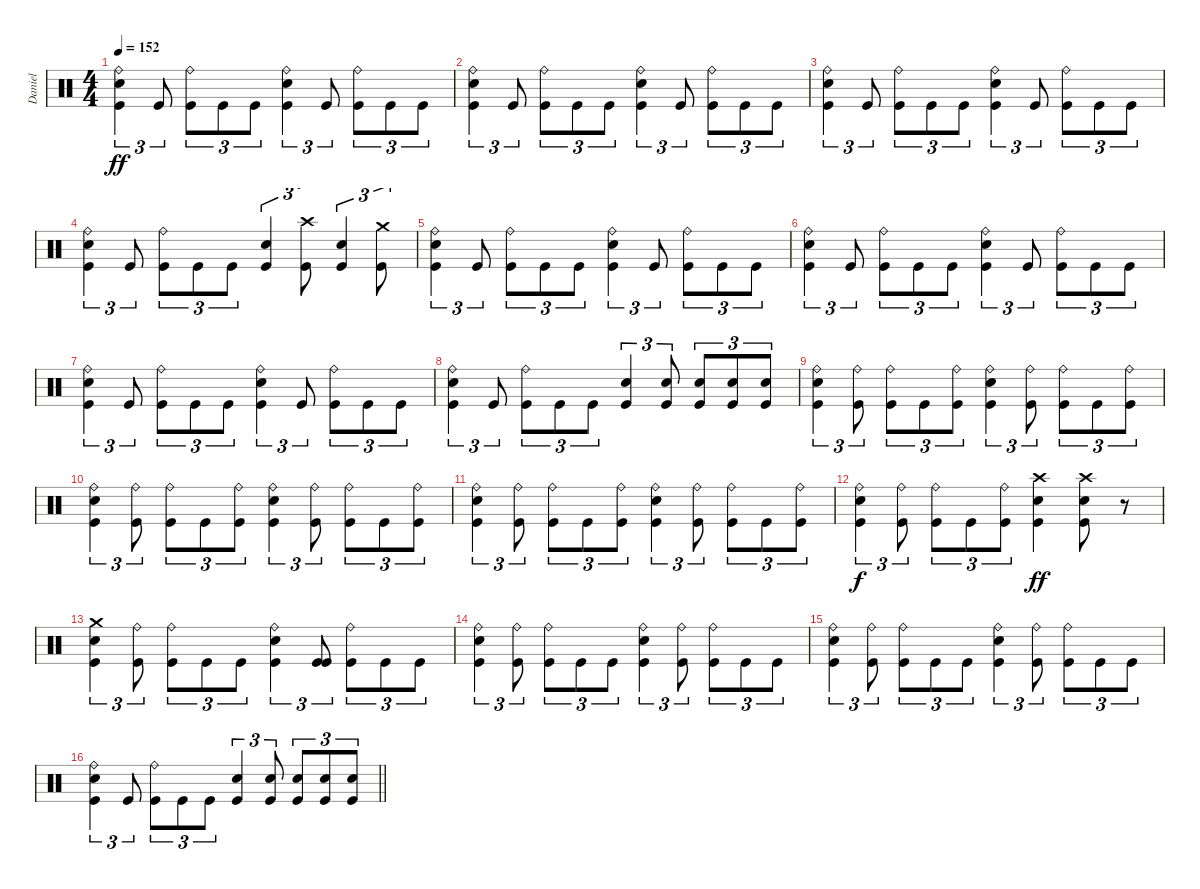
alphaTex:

\track ("Daniel" "Daniel") {instrument percussion}
\staff {score}
\articulation defaults
\ts (4 4)
\tempo 152
\clef neutral
\ks c
("Kick (hit)" "Snare (hit) 2" "Ride (bell)").4{tu (3 2) dy ff} "Kick (hit)".8{tu (3 2)} ("Kick (hit)" "Ride (bell)").8{tu (3 2)} "Kick (hit)".8{tu (3 2)} "Kick (hit)".8{tu (3 2)} ("Kick (hit)" "Snare (hit) 2" "Ride (bell)").4{tu (3 2)} "Kick (hit)".8{tu (3 2)} ("Kick (hit)" "Ride (bell)").8{tu (3 2)} "Kick (hit)".8{tu (3 2)} "Kick (hit)".8{tu (3 2)} |
("Kick (hit)" "Snare (hit) 2" "Ride (bell)").4{tu (3 2)} "Kick (hit)".8{tu (3 2)} ("Kick (hit)" "Ride (bell)").8{tu (3 2)} "Kick (hit)".8{tu (3 2)} "Kick (hit)".8{tu (3 2)} ("Kick (hit)" "Snare (hit) 2" "Ride (bell)").4{tu (3 2)} "Kick (hit)".8{tu (3 2)} ("Kick (hit)" "Ride (bell)").8{tu (3 2)} "Kick (hit)".8{tu (3 2)} "Kick (hit)".8{tu (3 2)} |
("Kick (hit)" "Snare (hit) 2" "Ride (bell)").4{tu (3 2)} "Kick (hit)".8{tu (3 2)} ("Kick (hit)" "Ride (bell)").8{tu (3 2)} "Kick (hit)".8{tu (3 2)} "Kick (hit)".8{tu (3 2)} ("Kick (hit)" "Snare (hit) 2" "Ride (bell)").4{tu (3 2)} "Kick (hit)".8{tu (3 2)} ("Kick (hit)" "Ride (bell)").8{tu (3 2)} "Kick (hit)".8{tu (3 2)} "Kick (hit)".8{tu (3 2)} |
("Kick (hit)" "Snare (hit) 2" "Ride (bell)").4{tu (3 2)} "Kick (hit)".8{tu (3 2)} ("Kick (hit)" "Ride (bell)").8{tu (3 2)} "Kick (hit)".8{tu (3 2)} "Kick (hit)".8{tu (3 2)} ("Kick (hit)" "Snare (hit) 2").4{tu (3 2)} ("Kick (hit)" "Crash high (hit)").8{tu (3 2)} ("Kick (hit)" "Snare (hit) 2").4{tu (3 2)} ("Kick (hit)" "Crash medium (hit)").8{tu (3 2)} |
("Kick (hit)" "Snare (hit) 2" "Ride (bell)").4{tu (3 2)} "Kick (hit)".8{tu (3 2)} ("Kick (hit)" "Ride (bell)").8{tu (3 2)} "Kick (hit)".8{tu (3 2)} "Kick (hit)".8{tu (3 2)} ("Kick (hit)" "Snare (hit) 2" "Ride (bell)").4{tu (3 2)} "Kick (hit)".8{tu (3 2)} ("Kick (hit)" "Ride (bell)").8{tu (3 2)} "Kick (hit)".8{tu (3 2)} "Kick (hit)".8{tu (3 2)} |
("Kick (hit)" "Snare (hit) 2" "Ride (bell)").4{tu (3 2)} "Kick (hit)".8{tu (3 2)} ("Kick (hit)" "Ride (bell)").8{tu (3 2)} "Kick (hit)".8{tu (3 2)} "Kick (hit)".8{tu (3 2)} ("Kick (hit)" "Snare (hit) 2" "Ride (bell)").4{tu (3 2)} "Kick (hit)".8{tu (3 2)} ("Kick (hit)" "Ride (bell)").8{tu (3 2)} "Kick (hit)".8{tu (3 2)} "Kick (hit)".8{tu (3 2)} |
("Kick (hit)" "Snare (hit) 2" "Ride (bell)").4{tu (3 2)} "Kick (hit)".8{tu (3 2)} ("Kick (hit)" "Ride (bell)").8{tu (3 2)} "Kick (hit)".8{tu (3 2)} "Kick (hit)".8{tu (3 2)} ("Kick (hit)" "Snare (hit) 2" "Ride (bell)").4{tu (3 2)} "Kick (hit)".8{tu (3 2)} ("Kick (hit)" "Ride (bell)").8{tu (3 2)} "Kick (hit)".8{tu (3 2)} "Kick (hit)".8{tu (3 2)} |
("Kick (hit)" "Snare (hit) 2" "Ride (bell)").4{tu (3 2)} "Kick (hit)".8{tu (3 2)} ("Kick (hit)" "Ride (bell)").8{tu (3 2)} "Kick (hit)".8{tu (3 2)} "Kick (hit)".8{tu (3 2)} ("Kick (hit)" "Snare (hit) 2").4{tu (3 2)} ("Kick (hit)" "Snare (hit) 2").8{tu (3 2)} ("Kick (hit)" "Snare (hit) 2").8{tu (3 2)} ("Kick (hit)" "Snare (hit) 2").8{tu (3 2)} ("Kick (hit)" "Snare (hit) 2").8{tu (3 2)} |
("Kick (hit)" "Snare (hit) 2" "Ride (bell)").4{tu (3 2)} ("Kick (hit)" "Ride (bell)").8{tu (3 2)} ("Kick (hit)" "Ride (bell)").8{tu (3 2)} "Kick (hit)".8{tu (3 2)} ("Kick (hit)" "Ride (bell)").8{tu (3 2)} ("Kick (hit)" "Snare (hit) 2" "Ride (bell)").4{tu (3 2)} ("Kick (hit)" "Ride (bell)").8{tu (3 2)} ("Kick (hit)" "Ride (bell)").8{tu (3 2)} "Kick (hit)".8{tu (3 2)} ("Kick (hit)" "Ride (bell)").8{tu (3 2)} |
("Kick (hit)" "Snare (hit) 2" "Ride (bell)").4{tu (3 2)} ("Kick (hit)" "Ride (bell)").8{tu (3 2)} ("Kick (hit)" "Ride (bell)").8{tu (3 2)} "Kick (hit)".8{tu (3 2)} ("Kick (hit)" "Ride (bell)").8{tu (3 2)} ("Kick (hit)" "Snare (hit) 2" "Ride (bell)").4{tu (3 2)} ("Kick (hit)" "Ride (bell)").8{tu (3 2)} ("Kick (hit)" "Ride (bell)").8{tu (3 2)} "Kick (hit)".8{tu (3 2)} ("Kick (hit)" "Ride (bell)").8{tu (3 2)} |
("Kick (hit)" "Snare (hit) 2" "Ride (bell)").4{tu (3 2)} ("Kick (hit)" "Ride (bell)").8{tu (3 2)} ("Kick (hit)" "Ride (bell)").8{tu (3 2)} "Kick (hit)".8{tu (3 2)} ("Kick (hit)" "Ride (bell)").8{tu (3 2)} ("Kick (hit)" "Snare (hit) 2" "Ride (bell)").4{tu (3 2)} ("Kick (hit)" "Ride (bell)").8{tu (3 2)} ("Kick (hit)" "Ride (bell)").8{tu (3 2)} "Kick (hit)".8{tu (3 2)} ("Kick (hit)" "Ride (bell)").8{tu (3 2)} |
("Kick (hit)" "Snare (hit) 2" "Ride (bell)").4{tu (3 2) dy f} ("Kick (hit)" "Ride (bell)").8{tu (3 2)} ("Kick (hit)" "Ride (bell)").8{tu (3 2)} "Kick (hit)".8{tu (3 2)} ("Kick (hit)" "Ride (bell)").8{tu (3 2)} ("Kick (hit)" "Snare (hit) 2" "Crash high (hit)").4{dy ff} ("Kick (hit)" "Snare (hit) 2" "Crash high (hit)").8 r.8 |
("Kick (hit)" "Snare (hit) 2" "Crash medium (hit)").4{tu (3 2)} ("Kick (hit)" "Ride (bell)").8{tu (3 2)} ("Kick (hit)" "Ride (bell)").8{tu (3 2)} "Kick (hit)".8{tu (3 2)} "Kick (hit)".8{tu (3 2)} ("Kick (hit)" "Snare (hit) 2" "Ride (bell)").4{tu (3 2)} ("Kick (hit)" "Kick (hit)").8{tu (3 2)} ("Kick (hit)" "Ride (bell)").8{tu (3 2)} "Kick (hit)".8{tu (3 2)} "Kick (hit)".8{tu (3 2)} |
("Kick (hit)" "Snare (hit) 2" "Ride (bell)").4{tu (3 2)} ("Kick (hit)" "Ride (bell)").8{tu (3 2)} ("Kick (hit)" "Ride (bell)").8{tu (3 2)} "Kick (hit)".8{tu (3 2)} "Kick (hit)".8{tu (3 2)} ("Kick (hit)" "Snare (hit) 2" "Ride (bell)").4{tu (3 2)} ("Kick (hit)" "Ride (bell)").8{tu (3 2)} ("Kick (hit)" "Ride (bell)").8{tu (3 2)} "Kick (hit)".8{tu (3 2)} "Kick (hit)".8{tu (3 2)} |
("Kick (hit)" "Snare (hit) 2" "Ride (bell)").4{tu (3 2)} ("Kick (hit)" "Ride (bell)").8{tu (3 2)} ("Kick (hit)" "Ride (bell)").8{tu (3 2)} "Kick (hit)".8{tu (3 2)} "Kick (hit)".8{tu (3 2)} ("Kick (hit)" "Snare (hit) 2" "Ride (bell)").4{tu (3 2)} ("Kick (hit)" "Ride (bell)").8{tu (3 2)} ("Kick (hit)" "Ride (bell)").8{tu (3 2)} "Kick (hit)".8{tu (3 2)} "Kick (hit)".8{tu (3 2)} |
\barLineRight lightlight
("Kick (hit)" "Snare (hit) 2" "Ride (bell)").4{tu (3 2)} "Kick (hit)".8{tu (3 2)} ("Kick (hit)" "Ride (bell)").8{tu (3 2)} "Kick (hit)".8{tu (3 2)} "Kick (hit)".8{tu (3 2)} ("Kick (hit)" "Snare (hit) 2").4{tu (3 2)} ("Kick (hit)" "Snare (hit) 2").8{tu (3 2)} ("Kick (hit)" "Snare (hit) 2").8{tu (3 2)} ("Kick (hit)" "Snare (hit) 2").8{tu (3 2)} ("Kick (hit)" "Snare (hit) 2").8{tu (3 2)}
